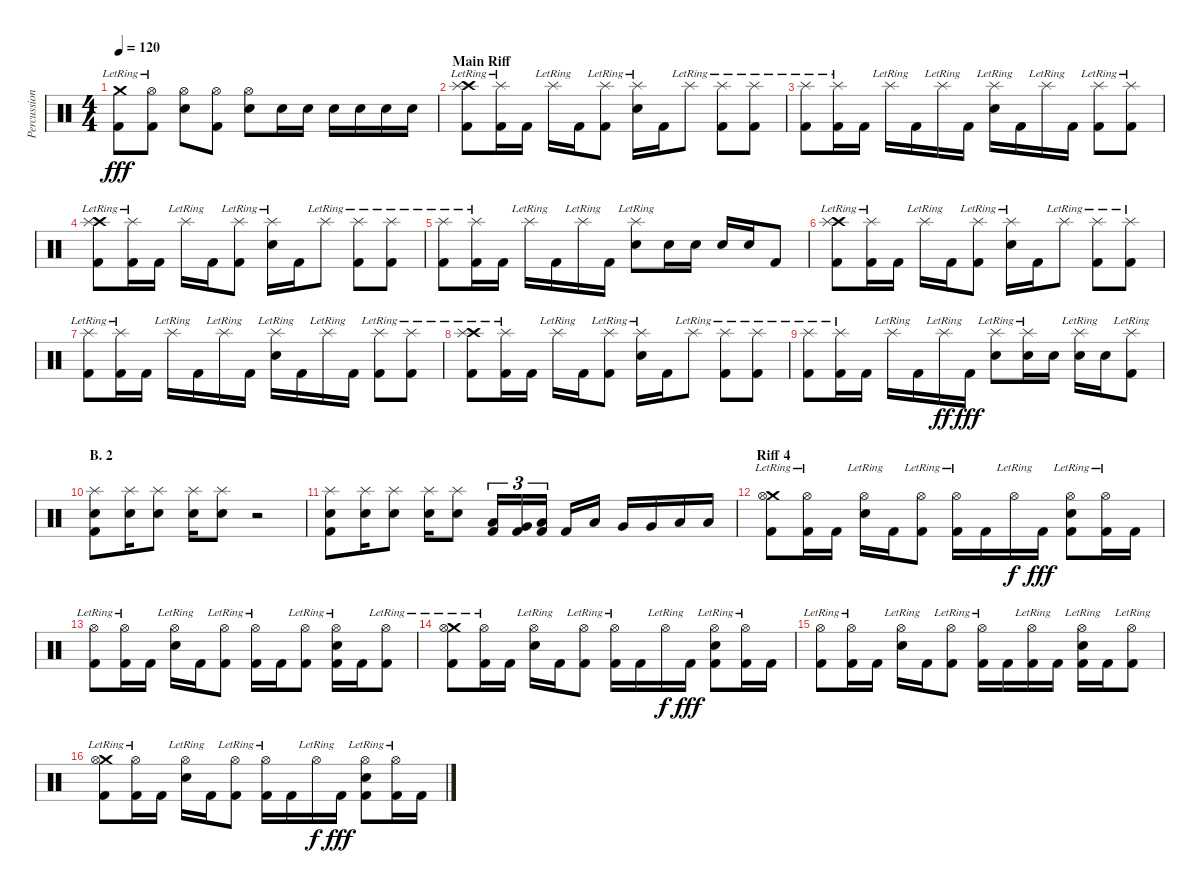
\track ("Percussions" "Percussion") {instrument percussion}
\staff {score}
\articulation defaults
\ts (4 4)
\tempo 120
\clef neutral
\ks c
("Crash medium (hit)"{lr} "Kick (hit) 2").8{dy fff} ("Hi-Hat (open)"{lr} "Kick (hit) 2").8 ("Hi-Hat (open)" "Electric Snare (hit)").8 ("Hi-Hat (open)" "Kick (hit) 2").8 ("Hi-Hat (open)" "Electric Snare (hit)").8 "Electric Snare (hit)".16 "Electric Snare (hit)".16 "Electric Snare (hit)".16 "Electric Snare (hit)".16 "Electric Snare (hit)".16 "Electric Snare (hit)".16 |
\section ("" "Main Riff")
("Crash high (hit)"{lr} "Splash (hit)"{lr} "Kick (hit) 2").8 ("Splash (hit)"{lr} "Kick (hit) 2").16 "Kick (hit) 2".16 "Splash (hit)"{lr}.16 "Kick (hit) 2".16 ("Splash (hit)"{lr} "Kick (hit) 2").8 ("Splash (hit)"{lr} "Electric Snare (hit)").16 "Kick (hit) 2".16 "Splash (hit)"{lr}.8 ("Splash (hit)"{lr} "Kick (hit) 2").8 ("Splash (hit)"{lr} "Kick (hit) 2").8 |
("Splash (hit)"{lr} "Kick (hit) 2").8 ("Splash (hit)"{lr} "Kick (hit) 2").16 "Kick (hit) 2".16 "Splash (hit)"{lr}.16 "Kick (hit) 2".16 "Splash (hit)"{lr}.16 "Kick (hit) 2".16 ("Splash (hit)"{lr} "Electric Snare (hit)").16 "Kick (hit) 2".16 "Splash (hit)"{lr}.16 "Kick (hit) 2".16 ("Splash (hit)"{lr} "Kick (hit) 2").8 ("Splash (hit)"{lr} "Kick (hit) 2").8 |
("Crash high (hit)"{lr} "Splash (hit)"{lr} "Kick (hit) 2").8 ("Splash (hit)"{lr} "Kick (hit) 2").16 "Kick (hit) 2".16 "Splash (hit)"{lr}.16 "Kick (hit) 2".16 ("Splash (hit)"{lr} "Kick (hit) 2").8 ("Splash (hit)"{lr} "Electric Snare (hit)").16 "Kick (hit) 2".16 "Splash (hit)"{lr}.8 ("Splash (hit)"{lr} "Kick (hit) 2").8 ("Splash (hit)"{lr} "Kick (hit) 2").8 |
("Splash (hit)"{lr} "Kick (hit) 2").8 ("Splash (hit)"{lr} "Kick (hit) 2").16 "Kick (hit) 2".16 "Splash (hit)"{lr}.16 "Kick (hit) 2".16 "Splash (hit)"{lr}.16 "Kick (hit) 2".16 ("Splash (hit)"{lr} "Electric Snare (hit)").8 "Electric Snare (hit)".16 "Electric Snare (hit)".16 "Electric Snare (hit)".16 "Electric Snare (hit)".16 "Kick (hit) 2".8 |
("Crash high (hit)"{lr} "Splash (hit)"{lr} "Kick (hit) 2").8 ("Splash (hit)"{lr} "Kick (hit) 2").16 "Kick (hit) 2".16 "Splash (hit)"{lr}.16 "Kick (hit) 2".16 ("Splash (hit)"{lr} "Kick (hit) 2").8 ("Splash (hit)"{lr} "Electric Snare (hit)").16 "Kick (hit) 2".16 "Splash (hit)"{lr}.8 ("Splash (hit)"{lr} "Kick (hit) 2").8 ("Splash (hit)"{lr} "Kick (hit) 2").8 |
("Splash (hit)"{lr} "Kick (hit) 2").8 ("Splash (hit)"{lr} "Kick (hit) 2").16 "Kick (hit) 2".16 "Splash (hit)"{lr}.16 "Kick (hit) 2".16 "Splash (hit)"{lr}.16 "Kick (hit) 2".16 ("Splash (hit)"{lr} "Electric Snare (hit)").16 "Kick (hit) 2".16 "Splash (hit)"{lr}.16 "Kick (hit) 2".16 ("Splash (hit)"{lr} "Kick (hit) 2").8 ("Splash (hit)"{lr} "Kick (hit) 2").8 |
("Crash high (hit)"{lr} "Splash (hit)"{lr} "Kick (hit) 2").8 ("Splash (hit)"{lr} "Kick (hit) 2").16 "Kick (hit) 2".16 "Splash (hit)"{lr}.16 "Kick (hit) 2".16 ("Splash (hit)"{lr} "Kick (hit) 2").8 ("Splash (hit)"{lr} "Electric Snare (hit)").16 "Kick (hit) 2".16 "Splash (hit)"{lr}.8 ("Splash (hit)"{lr} "Kick (hit) 2").8 ("Splash (hit)"{lr} "Kick (hit) 2").8 |
("Splash (hit)"{lr} "Kick (hit) 2").8 ("Splash (hit)"{lr} "Kick (hit) 2").16 "Kick (hit) 2".16 "Splash (hit)"{lr}.16 "Kick (hit) 2".16 "Splash (hit)"{lr}.16{dy ff} "Kick (hit) 2".16{dy fff} ("Splash (hit)"{lr} "Electric Snare (hit)").8 ("Splash (hit)"{lr} "Electric Snare (hit)").16 "Electric Snare (hit)".16 ("Splash (hit)"{lr} "Electric Snare (hit)").16 "Electric Snare (hit)".16 ("Splash (hit)"{lr} "Kick (hit) 2").8 |
\section ("" "B. 2")
("Splash (hit)" "Electric Snare (hit)" "Kick (hit) 2").8 ("Splash (hit)" "Electric Snare (hit)").16 ("Splash (hit)" "Electric Snare (hit)").8 ("Splash (hit)" "Electric Snare (hit)").16 ("Splash (hit)" "Electric Snare (hit)").8 r.2 |
("Splash (hit)" "Electric Snare (hit)" "Kick (hit) 2").8 ("Splash (hit)" "Electric Snare (hit)").16 ("Splash (hit)" "Electric Snare (hit)").8 ("Splash (hit)" "Electric Snare (hit)").16 ("Splash (hit)" "Electric Snare (hit)").8 ("Low Tom (hit)" "Kick (hit) 2").16{tu (3 2)} ("Very Low Tom (hit)" "Kick (hit) 2").16{tu (3 2)} ("Low Floor Tom (hit)" "Kick (hit) 2").16{tu (3 2)} "Kick (hit) 2".16 "Low Tom (hit)".16 "Very Low Tom (hit)".16 "Very Low Tom (hit)".16 "Low Floor Tom (hit)".16 "Low Floor Tom (hit)".16 |
\section ("" "Riff 4")
("Crash medium (hit)"{lr} "Hi-Hat (open)"{lr} "Kick (hit) 2").8 ("Hi-Hat (open)"{lr} "Kick (hit) 2").16 "Kick (hit) 2".16 ("Hi-Hat (open)"{lr} "Electric Snare (hit)").16 "Kick (hit) 2".16 ("Hi-Hat (open)"{lr} "Kick (hit) 2").8 ("Hi-Hat (open)"{lr} "Kick (hit) 2").16 "Kick (hit) 2".16 "Hi-Hat (open)"{lr}.16{dy f} "Kick (hit) 2".16{dy fff} ("Hi-Hat (open)"{lr} "Electric Snare (hit)" "Kick (hit) 2").8 ("Hi-Hat (open)"{lr} "Kick (hit) 2").16 "Kick (hit) 2".16 |
("Hi-Hat (open)"{lr} "Kick (hit) 2").8 ("Hi-Hat (open)"{lr} "Kick (hit) 2").16 "Kick (hit) 2".16 ("Hi-Hat (open)"{lr} "Electric Snare (hit)").16 "Kick (hit) 2".16 ("Hi-Hat (open)"{lr} "Kick (hit) 2").8 ("Hi-Hat (open)"{lr} "Kick (hit) 2").16 "Kick (hit) 2".16 ("Hi-Hat (open)"{lr} "Kick (hit) 2").8 ("Hi-Hat (open)"{lr} "Electric Snare (hit)" "Kick (hit) 2").16 "Kick (hit) 2".16 ("Hi-Hat (open)"{lr} "Kick (hit) 2").8 |
("Crash medium (hit)"{lr} "Hi-Hat (open)"{lr} "Kick (hit) 2").8 ("Hi-Hat (open)"{lr} "Kick (hit) 2").16 "Kick (hit) 2".16 ("Hi-Hat (open)"{lr} "Electric Snare (hit)").16 "Kick (hit) 2".16 ("Hi-Hat (open)"{lr} "Kick (hit) 2").8 ("Hi-Hat (open)"{lr} "Kick (hit) 2").16 "Kick (hit) 2".16 "Hi-Hat (open)"{lr}.16{dy f} "Kick (hit) 2".16{dy fff} ("Hi-Hat (open)"{lr} "Electric Snare (hit)" "Kick (hit) 2").8 ("Hi-Hat (open)"{lr} "Kick (hit) 2").16 "Kick (hit) 2".16 |
("Hi-Hat (open)"{lr} "Kick (hit) 2").8 ("Hi-Hat (open)"{lr} "Kick (hit) 2").16 "Kick (hit) 2".16 ("Hi-Hat (open)"{lr} "Electric Snare (hit)").16 "Kick (hit) 2".16 ("Hi-Hat (open)"{lr} "Kick (hit) 2").8 ("Hi-Hat (open)"{lr} "Kick (hit) 2").16 "Kick (hit) 2".16 ("Hi-Hat (open)"{lr} "Kick (hit) 2").16 "Kick (hit) 2".16 ("Hi-Hat (open)"{lr} "Electric Snare (hit)" "Kick (hit) 2").16 "Kick (hit) 2".16 ("Hi-Hat (open)"{lr} "Kick (hit) 2").8 |
("Crash medium (hit)"{lr} "Hi-Hat (open)"{lr} "Kick (hit) 2").8 ("Hi-Hat (open)"{lr} "Kick (hit) 2").16 "Kick (hit) 2".16 ("Hi-Hat (open)"{lr} "Electric Snare (hit)").16 "Kick (hit) 2".16 ("Hi-Hat (open)"{lr} "Kick (hit) 2").8 ("Hi-Hat (open)"{lr} "Kick (hit) 2").16 "Kick (hit) 2".16 "Hi-Hat (open)"{lr}.16{dy f} "Kick (hit) 2".16{dy fff} ("Hi-Hat (open)"{lr} "Electric Snare (hit)" "Kick (hit) 2").8 ("Hi-Hat (open)"{lr} "Kick (hit) 2").16 "Kick (hit) 2".16
